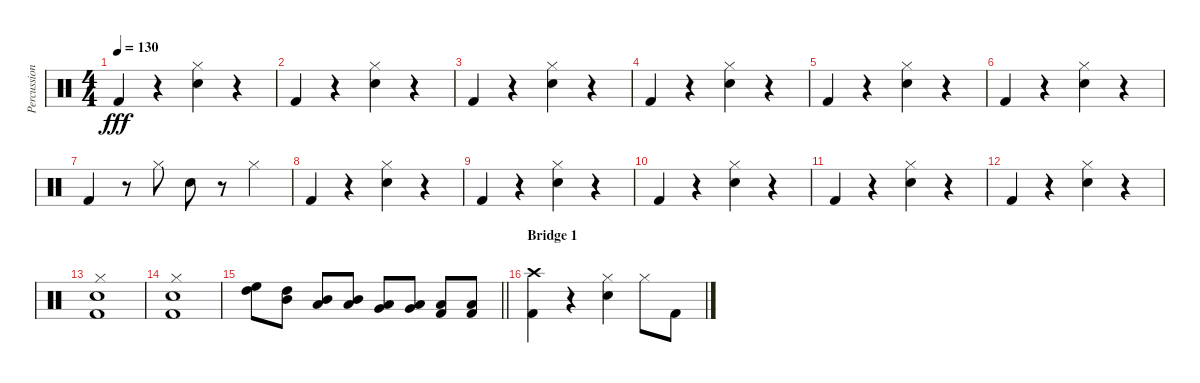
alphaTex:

\track ("Percussion" "Percussion") {instrument percussion}
\staff {score}
\articulation defaults
\ts (4 4)
\tempo 130
\clef neutral
\ks c "Kick (hit) 2".4{dy fff}
r.4 ("Hi-Hat (closed)" "Snare (hit) 2").4 r.4 |
"Kick (hit) 2".4 r.4 ("Hi-Hat (closed)" "Snare (hit) 2").4 r.4 |
"Kick (hit) 2".4 r.4 ("Hi-Hat (closed)" "Snare (hit) 2").4 r.4 |
"Kick (hit) 2".4 r.4 ("Hi-Hat (closed)" "Snare (hit) 2").4 r.4 |
"Kick (hit) 2".4 r.4 ("Hi-Hat (closed)" "Snare (hit) 2").4 r.4 |
"Kick (hit) 2".4 r.4 ("Hi-Hat (closed)" "Snare (hit) 2").4 r.4 |
"Kick (hit) 2".4 r.8 "Hi-Hat (closed)".8 "Snare (hit) 2".8 r.8 "Hi-Hat (closed)".4 |
"Kick (hit) 2".4 r.4 ("Hi-Hat (closed)" "Snare (hit) 2").4 r.4 |
"Kick (hit) 2".4 r.4 ("Hi-Hat (closed)" "Snare (hit) 2").4 r.4 |
"Kick (hit) 2".4 r.4 ("Hi-Hat (closed)" "Snare (hit) 2").4 r.4 |
"Kick (hit) 2".4 r.4 ("Hi-Hat (closed)" "Snare (hit) 2").4 r.4 |
"Kick (hit) 2".4 r.4 ("Hi-Hat (closed)" "Snare (hit) 2").4 r.4 |
("Hi-Hat (closed)" "Snare (hit) 2" "Kick (hit) 2").1 |
("Hi-Hat (closed)" "Snare (hit) 2" "Kick (hit) 2").1 |
\barLineRight lightlight
("High Floor Tom (hit)" "High Tom (hit)").8 ("High Tom (hit)" "Mid Tom (hit)").8 ("Mid Tom (hit)" "Low Tom (hit)").8 ("Mid Tom (hit)" "Low Tom (hit)").8 ("Low Tom (hit)" "Very Low Tom (hit)").8 ("Very Low Tom (hit)" "Low Floor Tom (hit)").8 ("Low Floor Tom (hit)" "Kick (hit) 2").8 ("Low Floor Tom (hit)" "Kick (hit) 2").8 |
\section ("" "Bridge 1")
("Crash high (hit)" "Kick (hit) 2").4 r.4 ("Hi-Hat (closed)" "Snare (hit) 2").4 "Hi-Hat (closed)".8 "Kick (hit) 2".8
